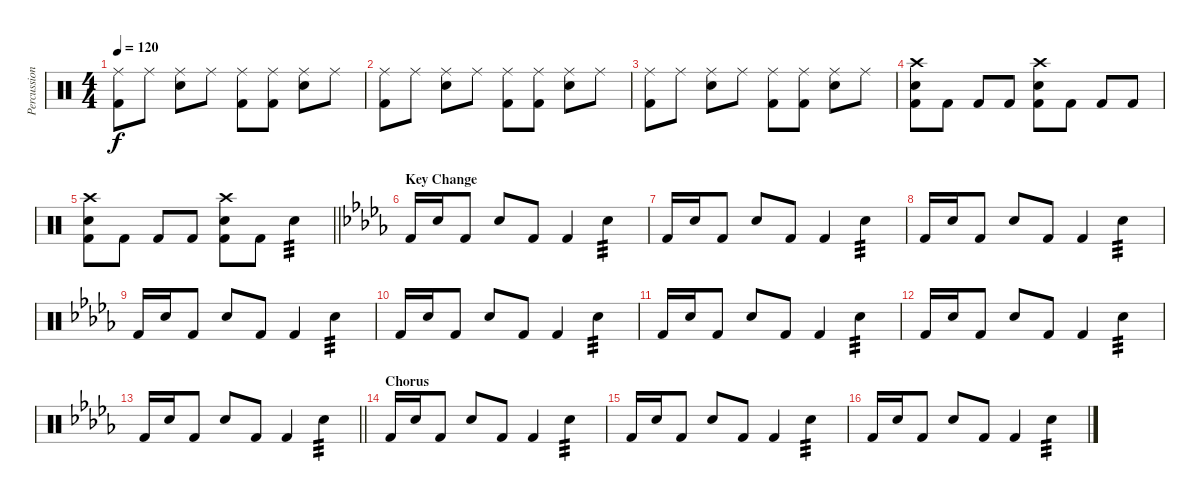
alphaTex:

\track ("Percussion" "Percussion") {instrument percussion}
\staff {score}
\articulation defaults
\ts (4 4)
\tempo 120
\clef neutral
\ks c
("Ride (middle)" "Kick (hit) 2").8{dy f} "Ride (middle)".8 ("Ride (middle)" "Electric Snare (hit)").8 "Ride (middle)".8 ("Ride (middle)" "Kick (hit) 2").8 ("Ride (middle)" "Kick (hit) 2").8 ("Ride (middle)" "Electric Snare (hit)").8 "Ride (middle)".8 |
("Ride (middle)" "Kick (hit) 2").8 "Ride (middle)".8 ("Ride (middle)" "Electric Snare (hit)").8 "Ride (middle)".8 ("Ride (middle)" "Kick (hit) 2").8 ("Ride (middle)" "Kick (hit) 2").8 ("Ride (middle)" "Electric Snare (hit)").8 "Ride (middle)".8 |
("Ride (middle)" "Kick (hit) 2").8 "Ride (middle)".8 ("Ride (middle)" "Electric Snare (hit)").8 "Ride (middle)".8 ("Ride (middle)" "Kick (hit) 2").8 ("Ride (middle)" "Kick (hit) 2").8 ("Ride (middle)" "Electric Snare (hit)").8 "Ride (middle)".8 |
("Crash high (hit)" "Electric Snare (hit)" "Kick (hit) 2").8 "Kick (hit) 2".8 "Kick (hit) 2".8 "Kick (hit) 2".8 ("Crash high (hit)" "Electric Snare (hit)" "Kick (hit) 2").8 "Kick (hit) 2".8 "Kick (hit) 2".8 "Kick (hit) 2".8 |
\barLineRight lightlight
("Crash high (hit)" "Electric Snare (hit)" "Kick (hit) 2").8 "Kick (hit) 2".8 "Kick (hit) 2".8 "Kick (hit) 2".8 ("Crash high (hit)" "Electric Snare (hit)" "Kick (hit) 2").8 "Kick (hit) 2".8 "Electric Snare (hit)".4{tp 3} |
\section ("" "Key Change")
\ks db "Kick (hit) 2".16 "Electric Snare (hit)".16 "Kick (hit) 2".8 "Electric Snare (hit)".8 "Kick (hit) 2".8 "Kick (hit) 2".4 "Electric Snare (hit)".4{tp 3}
|
"Kick (hit) 2".16 "Electric Snare (hit)".16 "Kick (hit) 2".8 "Electric Snare (hit)".8 "Kick (hit) 2".8 "Kick (hit) 2".4 "Electric Snare (hit)".4{tp 3} |
"Kick (hit) 2".16 "Electric Snare (hit)".16 "Kick (hit) 2".8 "Electric Snare (hit)".8 "Kick (hit) 2".8 "Kick (hit) 2".4 "Electric Snare (hit)".4{tp 3} |
"Kick (hit) 2".16 "Electric Snare (hit)".16 "Kick (hit) 2".8 "Electric Snare (hit)".8 "Kick (hit) 2".8 "Kick (hit) 2".4 "Electric Snare (hit)".4{tp 3} |
"Kick (hit) 2".16 "Electric Snare (hit)".16 "Kick (hit) 2".8 "Electric Snare (hit)".8 "Kick (hit) 2".8 "Kick (hit) 2".4 "Electric Snare (hit)".4{tp 3} |
"Kick (hit) 2".16 "Electric Snare (hit)".16 "Kick (hit) 2".8 "Electric Snare (hit)".8 "Kick (hit) 2".8 "Kick (hit) 2".4 "Electric Snare (hit)".4{tp 3} |
"Kick (hit) 2".16 "Electric Snare (hit)".16 "Kick (hit) 2".8 "Electric Snare (hit)".8 "Kick (hit) 2".8 "Kick (hit) 2".4 "Electric Snare (hit)".4{tp 3} |
\barLineRight lightlight "Kick (hit) 2".16 "Electric Snare (hit)".16 "Kick (hit) 2".8 "Electric Snare (hit)".8 "Kick (hit) 2".8 "Kick (hit) 2".4 "Electric Snare (hit)".4{tp 3}
|
\section ("" "Chorus")
"Kick (hit) 2".16 "Electric Snare (hit)".16 "Kick (hit) 2".8 "Electric Snare (hit)".8 "Kick (hit) 2".8 "Kick (hit) 2".4 "Electric Snare (hit)".4{tp 3} |
"Kick (hit) 2".16 "Electric Snare (hit)".16 "Kick (hit) 2".8 "Electric Snare (hit)".8 "Kick (hit) 2".8 "Kick (hit) 2".4 "Electric Snare (hit)".4{tp 3} |
"Kick (hit) 2".16 "Electric Snare (hit)".16 "Kick (hit) 2".8 "Electric Snare (hit)".8 "Kick (hit) 2".8 "Kick (hit) 2".4 "Electric Snare (hit)".4{tp 3}
